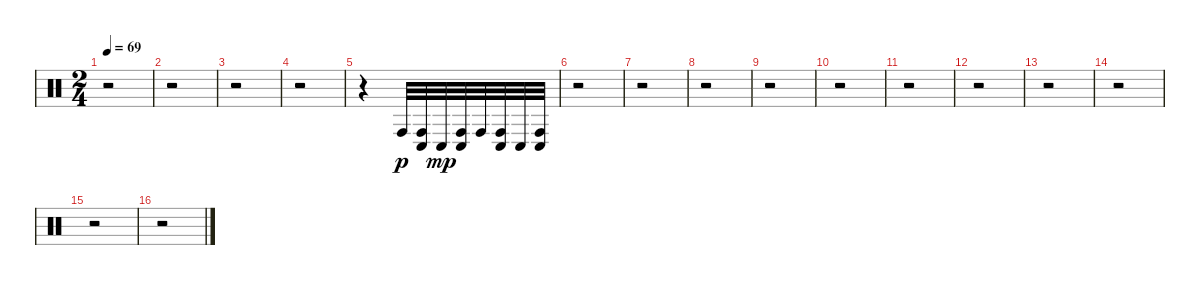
\track "" {instrument percussion}
\staff {score}
\articulation defaults
\ts (2 4)
\tempo 69
\clef neutral
\ks c
r.2{dy f} |
r.2 |
r.2 |
r.2 |
r.4 "Conga high (hit)".32{dy p} ("Conga low (hit)" "Conga high (hit)").32 "Conga low (hit)".32{dy mp} ("Conga high (hit)" "Conga low (hit)").32 "Conga high (hit)".32 ("Conga low (hit)" "Conga high (hit)").32 "Conga low (hit)".32 ("Conga high (hit)" "Conga low (hit)").32 |
r.2 |
r.2 |
r.2 |
r.2 |
r.2 |
r.2 |
r.2 |
r.2 |
r.2 |
r.2 |
r.2
